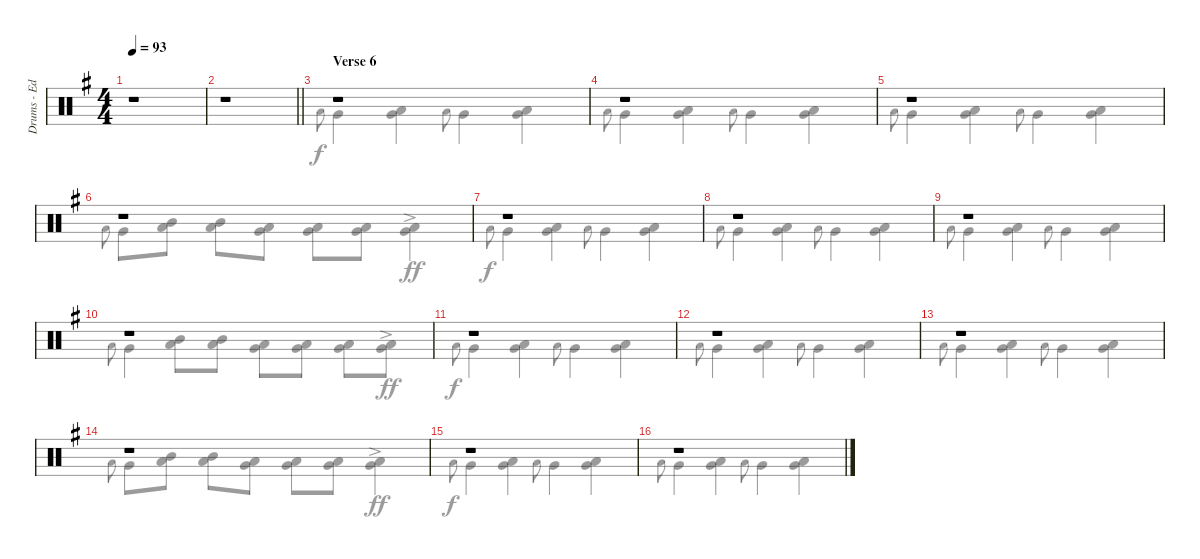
\track ("Drums - Ed Warby" "Drums - Ed") {instrument percussion}
\staff {score}
\articulation defaults
\voice
\ts (4 4)
\tempo 93
\clef neutral
\ks eminor
r.1{dy mf} |
\barLineRight lightlight
r.1 |
\section ("" "Verse 6")
r.1 |
r.1 |
r.1 |
r.1 |
r.1 |
r.1 |
r.1 |
r.1 |
r.1 |
r.1 |
r.1 |
r.1 |
r.1 |
r.1
\voice
\clef neutral
\ottava regular
\simile none
\ks eminor
|
\barLineRight lightlight
|
"Low Tom (hit)".8{gr onbeat dy f} "Very Low Tom (hit)".4 ("Very Low Tom (hit)" "Low Floor Tom (hit)").4 "Low Tom (hit)".8{gr onbeat} "Very Low Tom (hit)".4 ("Very Low Tom (hit)" "Low Floor Tom (hit)").4 |
"Low Tom (hit)".8{gr onbeat} "Very Low Tom (hit)".4 ("Very Low Tom (hit)" "Low Floor Tom (hit)").4 "Low Tom (hit)".8{gr onbeat} "Very Low Tom (hit)".4 ("Very Low Tom (hit)" "Low Floor Tom (hit)").4 |
"Low Tom (hit)".8{gr onbeat} "Very Low Tom (hit)".4 ("Very Low Tom (hit)" "Low Floor Tom (hit)").4 "Low Tom (hit)".8{gr onbeat} "Very Low Tom (hit)".4 ("Very Low Tom (hit)" "Low Floor Tom (hit)").4 |
"Low Tom (hit)".8{gr onbeat} "Very Low Tom (hit)".8 ("Mid Tom (hit)" "Low Tom (hit)").8 ("Mid Tom (hit)" "Low Tom (hit)").8 ("Low Tom (hit)" "Very Low Tom (hit)").8 ("Low Tom (hit)" "Very Low Tom (hit)").8 ("Very Low Tom (hit)" "Low Floor Tom (hit)").8 ("Very Low Tom (hit)"{ac} "Low Floor Tom (hit)"{ac}).4{dy ff} |
"Low Tom (hit)".8{gr onbeat dy f} "Very Low Tom (hit)".4 ("Very Low Tom (hit)" "Low Floor Tom (hit)").4 "Low Tom (hit)".8{gr onbeat} "Very Low Tom (hit)".4 ("Very Low Tom (hit)" "Low Floor Tom (hit)").4 |
"Low Tom (hit)".8{gr onbeat} "Very Low Tom (hit)".4 ("Very Low Tom (hit)" "Low Floor Tom (hit)").4 "Low Tom (hit)".8{gr onbeat} "Very Low Tom (hit)".4 ("Very Low Tom (hit)" "Low Floor Tom (hit)").4 |
"Low Tom (hit)".8{gr onbeat} "Very Low Tom (hit)".4 ("Very Low Tom (hit)" "Low Floor Tom (hit)").4 "Low Tom (hit)".8{gr onbeat} "Very Low Tom (hit)".4 ("Very Low Tom (hit)" "Low Floor Tom (hit)").4 |
"Low Tom (hit)".8{gr onbeat} "Very Low Tom (hit)".4 ("Mid Tom (hit)" "Low Tom (hit)").8 ("Mid Tom (hit)" "Low Tom (hit)").8 ("Low Tom (hit)" "Very Low Tom (hit)").8 ("Low Tom (hit)" "Very Low Tom (hit)").8 ("Very Low Tom (hit)" "Low Floor Tom (hit)").8 ("Very Low Tom (hit)"{ac} "Low Floor Tom (hit)"{ac}).8{dy ff} |
"Low Tom (hit)".8{gr onbeat dy f} "Very Low Tom (hit)".4 ("Very Low Tom (hit)" "Low Floor Tom (hit)").4 "Low Tom (hit)".8{gr onbeat} "Very Low Tom (hit)".4 ("Very Low Tom (hit)" "Low Floor Tom (hit)").4 |
"Low Tom (hit)".8{gr onbeat} "Very Low Tom (hit)".4 ("Very Low Tom (hit)" "Low Floor Tom (hit)").4 "Low Tom (hit)".8{gr onbeat} "Very Low Tom (hit)".4 ("Very Low Tom (hit)" "Low Floor Tom (hit)").4 |
"Low Tom (hit)".8{gr onbeat} "Very Low Tom (hit)".4 ("Very Low Tom (hit)" "Low Floor Tom (hit)").4 "Low Tom (hit)".8{gr onbeat} "Very Low Tom (hit)".4 ("Very Low Tom (hit)" "Low Floor Tom (hit)").4 |
"Low Tom (hit)".8{gr onbeat} "Very Low Tom (hit)".8 ("Mid Tom (hit)" "Low Tom (hit)").8 ("Mid Tom (hit)" "Low Tom (hit)").8 ("Low Tom (hit)" "Very Low Tom (hit)").8 ("Low Tom (hit)" "Very Low Tom (hit)").8 ("Very Low Tom (hit)" "Low Floor Tom (hit)").8 ("Very Low Tom (hit)"{ac} "Low Floor Tom (hit)"{ac}).4{dy ff} |
"Low Tom (hit)".8{gr onbeat dy f} "Very Low Tom (hit)".4 ("Very Low Tom (hit)" "Low Floor Tom (hit)").4 "Low Tom (hit)".8{gr onbeat} "Very Low Tom (hit)".4 ("Very Low Tom (hit)" "Low Floor Tom (hit)").4 |
"Low Tom (hit)".8{gr onbeat} "Very Low Tom (hit)".4 ("Very Low Tom (hit)" "Low Floor Tom (hit)").4 "Low Tom (hit)".8{gr onbeat} "Very Low Tom (hit)".4 ("Very Low Tom (hit)" "Low Floor Tom (hit)").4
